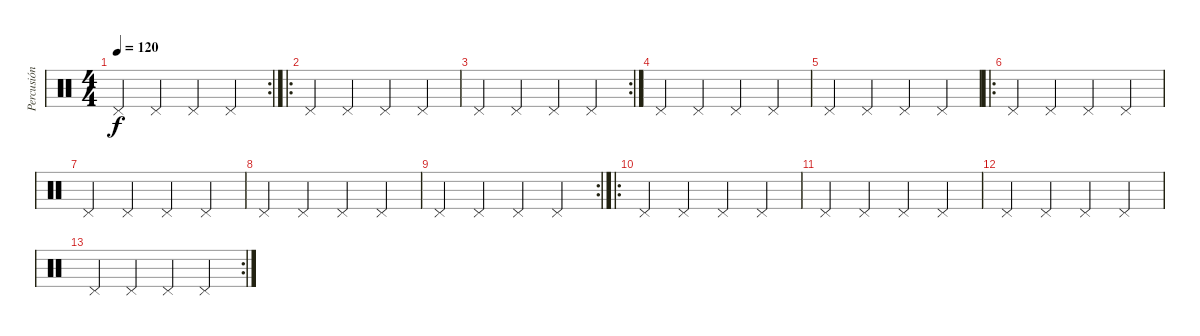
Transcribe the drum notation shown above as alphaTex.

\track ("Percusión" "Percusión") {instrument percussion}
\staff {score}
\articulation defaults
\rc 2
\ts (4 4)
\tempo 120
\clef neutral
\ks c "Pedal Hi-Hat (hit)".4{dy f} "Pedal Hi-Hat (hit)".4 "Pedal Hi-Hat (hit)".4 "Pedal Hi-Hat (hit)".4
|
\ro "Pedal Hi-Hat (hit)".4 "Pedal Hi-Hat (hit)".4 "Pedal Hi-Hat (hit)".4 "Pedal Hi-Hat (hit)".4
|
\rc 2 "Pedal Hi-Hat (hit)".4 "Pedal Hi-Hat (hit)".4 "Pedal Hi-Hat (hit)".4 "Pedal Hi-Hat (hit)".4
|
"Pedal Hi-Hat (hit)".4 "Pedal Hi-Hat (hit)".4 "Pedal Hi-Hat (hit)".4 "Pedal Hi-Hat (hit)".4 |
"Pedal Hi-Hat (hit)".4 "Pedal Hi-Hat (hit)".4 "Pedal Hi-Hat (hit)".4 "Pedal Hi-Hat (hit)".4 |
\ro "Pedal Hi-Hat (hit)".4 "Pedal Hi-Hat (hit)".4 "Pedal Hi-Hat (hit)".4 "Pedal Hi-Hat (hit)".4
|
"Pedal Hi-Hat (hit)".4 "Pedal Hi-Hat (hit)".4 "Pedal Hi-Hat (hit)".4 "Pedal Hi-Hat (hit)".4 |
"Pedal Hi-Hat (hit)".4 "Pedal Hi-Hat (hit)".4 "Pedal Hi-Hat (hit)".4 "Pedal Hi-Hat (hit)".4 |
\rc 2 "Pedal Hi-Hat (hit)".4 "Pedal Hi-Hat (hit)".4 "Pedal Hi-Hat (hit)".4 "Pedal Hi-Hat (hit)".4
|
\ro "Pedal Hi-Hat (hit)".4 "Pedal Hi-Hat (hit)".4 "Pedal Hi-Hat (hit)".4 "Pedal Hi-Hat (hit)".4
|
"Pedal Hi-Hat (hit)".4 "Pedal Hi-Hat (hit)".4 "Pedal Hi-Hat (hit)".4 "Pedal Hi-Hat (hit)".4 |
"Pedal Hi-Hat (hit)".4 "Pedal Hi-Hat (hit)".4 "Pedal Hi-Hat (hit)".4 "Pedal Hi-Hat (hit)".4 |
\rc 2 "Pedal Hi-Hat (hit)".4 "Pedal Hi-Hat (hit)".4 "Pedal Hi-Hat (hit)".4 "Pedal Hi-Hat (hit)".4
